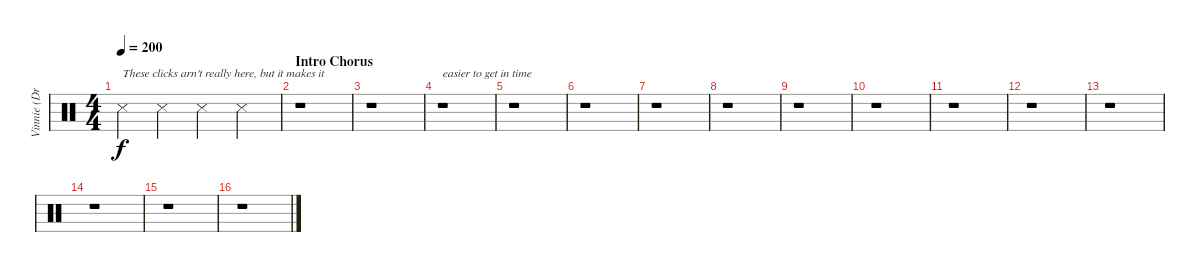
\track ("Vinnie (Drums)" "Vinnie (Dr") {instrument percussion}
\staff {score}
\articulation defaults
\ts (4 4)
\tempo 200
\clef neutral
\ks c "Snare (side stick) 3".4{txt "These clicks arn't really here, but it makes it" dy f} "Snare (side stick) 3".4 "Snare (side stick) 3".4 "Snare (side stick) 3".4
|
\section ("" "Intro Chorus")
r.1 |
r.1 |
r.1{txt "easier to get in time"} |
r.1 |
r.1 |
r.1 |
r.1 |
r.1 |
r.1 |
r.1 |
r.1 |
r.1 |
r.1 |
r.1 |
r.1
